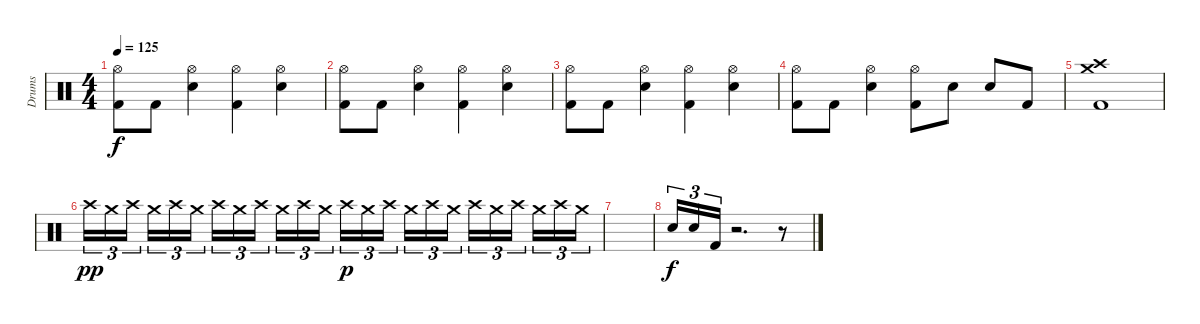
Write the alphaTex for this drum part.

\track ("Drums" "Drums") {instrument percussion}
\staff {score}
\articulation defaults
\ts (4 4)
\tempo 125
\clef neutral
\ks c
("Hi-Hat (open)" "Kick (hit) 2").8{dy f} "Kick (hit) 2".8 ("Hi-Hat (open)" "Electric Snare (hit)").4 ("Hi-Hat (open)" "Kick (hit) 2").4 ("Hi-Hat (open)" "Electric Snare (hit)").4 |
("Hi-Hat (open)" "Kick (hit) 2").8 "Kick (hit) 2".8 ("Hi-Hat (open)" "Electric Snare (hit)").4 ("Hi-Hat (open)" "Kick (hit) 2").4 ("Hi-Hat (open)" "Electric Snare (hit)").4 |
("Hi-Hat (open)" "Kick (hit) 2").8 "Kick (hit) 2".8 ("Hi-Hat (open)" "Electric Snare (hit)").4 ("Hi-Hat (open)" "Kick (hit) 2").4 ("Hi-Hat (open)" "Electric Snare (hit)").4 |
("Hi-Hat (open)" "Kick (hit) 2").8 "Kick (hit) 2".8 ("Hi-Hat (open)" "Electric Snare (hit)").4 ("Hi-Hat (open)" "Kick (hit) 2").8 "Electric Snare (hit)".8 "Electric Snare (hit)".8 "Kick (hit) 2".8 |
("Crash high (hit)" "Crash medium (hit)" "Kick (hit) 2").1 |
"Crash high (hit)".16{tu (3 2) dy pp} "Crash medium (hit)".16{tu (3 2)} "Crash high (hit)".16{tu (3 2)} "Crash medium (hit)".16{tu (3 2)} "Crash high (hit)".16{tu (3 2)} "Crash medium (hit)".16{tu (3 2)} "Crash high (hit)".16{tu (3 2)} "Crash medium (hit)".16{tu (3 2)} "Crash high (hit)".16{tu (3 2)} "Crash medium (hit)".16{tu (3 2)} "Crash high (hit)".16{tu (3 2)} "Crash medium (hit)".16{tu (3 2)} "Crash high (hit)".16{tu (3 2) dy p} "Crash medium (hit)".16{tu (3 2)} "Crash high (hit)".16{tu (3 2)} "Crash medium (hit)".16{tu (3 2)} "Crash high (hit)".16{tu (3 2)} "Crash medium (hit)".16{tu (3 2)} "Crash high (hit)".16{tu (3 2)} "Crash medium (hit)".16{tu (3 2)} "Crash high (hit)".16{tu (3 2)} "Crash medium (hit)".16{tu (3 2)} "Crash high (hit)".16{tu (3 2)} "Crash medium (hit)".16{tu (3 2)} |
|
"Electric Snare (hit)".16{tu (3 2) dy f} "Electric Snare (hit)".16{tu (3 2)} "Kick (hit) 2".16{tu (3 2)} r.2{d} r.8
